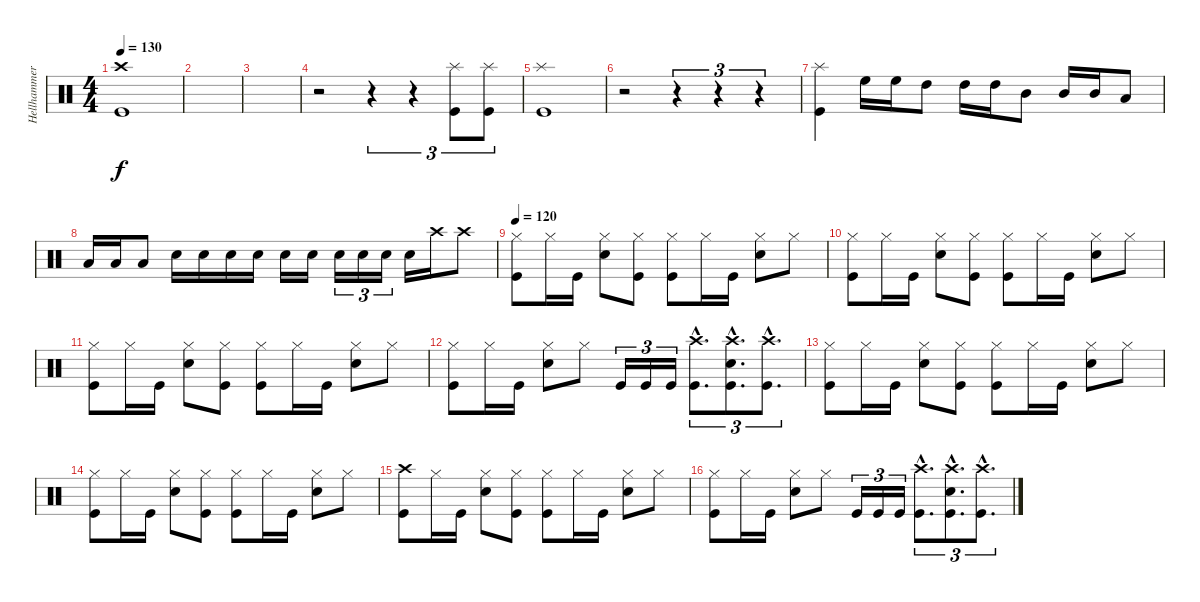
\track ("Hellhammer" "Hellhammer") {instrument percussion}
\staff {score}
\articulation defaults
\ts (4 4)
\tempo 130
\clef neutral
\ks c
("Crash high (hit)" "Kick (hit)").1{dy f} |
|
|
r.2 r.4{tu (3 2)} r.4{tu (3 2)} ("Splash (hit)" "Kick (hit)").8{tu (3 2)} ("Splash (hit)" "Kick (hit)").8{tu (3 2)} |
("Splash (hit)" "Kick (hit)").1 |
r.2 r.4{tu (3 2)} r.4{tu (3 2)} r.4{tu (3 2)} |
("Splash (hit)" "Kick (hit)").4 "High Floor Tom (hit)".16 "High Floor Tom (hit)".16 "High Tom (hit)".8 "High Tom (hit)".16 "High Tom (hit)".16 "Mid Tom (hit)".8 "Mid Tom (hit)".16 "Mid Tom (hit)".16 "Low Tom (hit)".8 |
"Low Tom (hit)".16 "Low Tom (hit)".16 "Low Tom (hit)".8 "Electric Snare (hit)".16 "Electric Snare (hit)".16 "Electric Snare (hit)".16 "Electric Snare (hit)".16 "Electric Snare (hit)".16 "Electric Snare (hit)".16 "Electric Snare (hit)".16{tu (3 2)} "Electric Snare (hit)".16{tu (3 2)} "Electric Snare (hit)".16{tu (3 2)} "Electric Snare (hit)".16 "Crash high (hit)".16 "Crash high (hit)".8 |
\tempo 120
("Hi-Hat (closed)" "Kick (hit)").8 "Hi-Hat (closed)".16 "Kick (hit)".16 ("Hi-Hat (closed)" "Electric Snare (hit)").8 ("Hi-Hat (closed)" "Kick (hit)").8 ("Hi-Hat (closed)" "Kick (hit)").8 "Hi-Hat (closed)".16 "Kick (hit)".16 ("Hi-Hat (closed)" "Electric Snare (hit)").8 "Hi-Hat (closed)".8 |
("Hi-Hat (closed)" "Kick (hit)").8 "Hi-Hat (closed)".16 "Kick (hit)".16 ("Hi-Hat (closed)" "Electric Snare (hit)").8 ("Hi-Hat (closed)" "Kick (hit)").8 ("Hi-Hat (closed)" "Kick (hit)").8 "Hi-Hat (closed)".16 "Kick (hit)".16 ("Hi-Hat (closed)" "Electric Snare (hit)").8 "Hi-Hat (closed)".8 |
("Hi-Hat (closed)" "Kick (hit)").8 "Hi-Hat (closed)".16 "Kick (hit)".16 ("Hi-Hat (closed)" "Electric Snare (hit)").8 ("Hi-Hat (closed)" "Kick (hit)").8 ("Hi-Hat (closed)" "Kick (hit)").8 "Hi-Hat (closed)".16 "Kick (hit)".16 ("Hi-Hat (closed)" "Electric Snare (hit)").8 "Hi-Hat (closed)".8 |
("Hi-Hat (closed)" "Kick (hit)").8 "Hi-Hat (closed)".16 "Kick (hit)".16 ("Hi-Hat (closed)" "Electric Snare (hit)").8 "Hi-Hat (closed)".8 "Kick (hit)".16{tu (3 2)} "Kick (hit)".16{tu (3 2)} "Kick (hit)".16{tu (3 2)} ("Crash high (hit)"{hac} "Kick (hit)"{hac}).8{d tu (3 2)} ("Crash high (hit)"{hac} "Electric Snare (hit)"{hac} "Kick (hit)"{hac}).8{d tu (3 2)} ("Crash high (hit)"{hac} "Kick (hit)"{hac}).8{d tu (3 2)} |
("Hi-Hat (closed)" "Kick (hit)").8 "Hi-Hat (closed)".16 "Kick (hit)".16 ("Hi-Hat (closed)" "Electric Snare (hit)").8 ("Hi-Hat (closed)" "Kick (hit)").8 ("Hi-Hat (closed)" "Kick (hit)").8 "Hi-Hat (closed)".16 "Kick (hit)".16 ("Hi-Hat (closed)" "Electric Snare (hit)").8 "Hi-Hat (closed)".8 |
("Hi-Hat (closed)" "Kick (hit)").8 "Hi-Hat (closed)".16 "Kick (hit)".16 ("Hi-Hat (closed)" "Electric Snare (hit)").8 ("Hi-Hat (closed)" "Kick (hit)").8 ("Hi-Hat (closed)" "Kick (hit)").8 "Hi-Hat (closed)".16 "Kick (hit)".16 ("Hi-Hat (closed)" "Electric Snare (hit)").8 "Hi-Hat (closed)".8 |
("Crash high (hit)" "Kick (hit)").8 "Hi-Hat (closed)".16 "Kick (hit)".16 ("Hi-Hat (closed)" "Electric Snare (hit)").8 ("Hi-Hat (closed)" "Kick (hit)").8 ("Hi-Hat (closed)" "Kick (hit)").8 "Hi-Hat (closed)".16 "Kick (hit)".16 ("Hi-Hat (closed)" "Electric Snare (hit)").8 "Hi-Hat (closed)".8 |
("Hi-Hat (closed)" "Kick (hit)").8 "Hi-Hat (closed)".16 "Kick (hit)".16 ("Hi-Hat (closed)" "Electric Snare (hit)").8 "Hi-Hat (closed)".8 "Kick (hit)".16{tu (3 2)} "Kick (hit)".16{tu (3 2)} "Kick (hit)".16{tu (3 2)} ("Crash high (hit)"{hac} "Kick (hit)"{hac}).8{d tu (3 2)} ("Crash high (hit)"{hac} "Electric Snare (hit)"{hac} "Kick (hit)"{hac}).8{d tu (3 2)} ("Crash high (hit)"{hac} "Kick (hit)"{hac}).8{d tu (3 2)}
